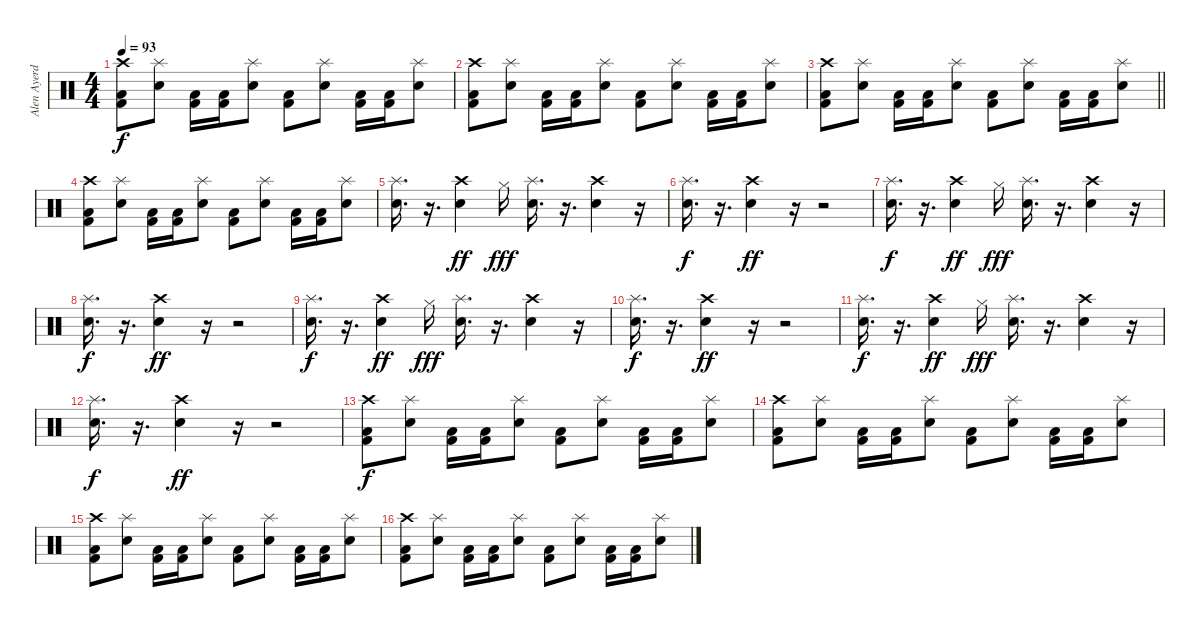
\track ("Alen Ayerdi" "Alen Ayerd") {instrument percussion}
\staff {score}
\articulation defaults
\ts (4 4)
\tempo 93
\clef neutral
\ks c
("Crash high (hit)" "Low Floor Tom (hit)" "Kick (hit) 2").8{dy f} ("Splash (hit)" "Electric Snare (hit)").8 ("Low Floor Tom (hit)" "Kick (hit) 2").16 ("Low Floor Tom (hit)" "Kick (hit) 2").16 ("Splash (hit)" "Electric Snare (hit)").8 ("Low Floor Tom (hit)" "Kick (hit) 2").8 ("Splash (hit)" "Electric Snare (hit)").8 ("Low Floor Tom (hit)" "Kick (hit) 2").16 ("Low Floor Tom (hit)" "Kick (hit) 2").16 ("Splash (hit)" "Electric Snare (hit)").8 |
("Crash high (hit)" "Low Floor Tom (hit)" "Kick (hit) 2").8 ("Splash (hit)" "Electric Snare (hit)").8 ("Low Floor Tom (hit)" "Kick (hit) 2").16 ("Low Floor Tom (hit)" "Kick (hit) 2").16 ("Splash (hit)" "Electric Snare (hit)").8 ("Low Floor Tom (hit)" "Kick (hit) 2").8 ("Splash (hit)" "Electric Snare (hit)").8 ("Low Floor Tom (hit)" "Kick (hit) 2").16 ("Low Floor Tom (hit)" "Kick (hit) 2").16 ("Splash (hit)" "Electric Snare (hit)").8 |
\barLineRight lightlight
("Crash high (hit)" "Low Floor Tom (hit)" "Kick (hit) 2").8 ("Splash (hit)" "Electric Snare (hit)").8 ("Low Floor Tom (hit)" "Kick (hit) 2").16 ("Low Floor Tom (hit)" "Kick (hit) 2").16 ("Splash (hit)" "Electric Snare (hit)").8 ("Low Floor Tom (hit)" "Kick (hit) 2").8 ("Splash (hit)" "Electric Snare (hit)").8 ("Low Floor Tom (hit)" "Kick (hit) 2").16 ("Low Floor Tom (hit)" "Kick (hit) 2").16 ("Splash (hit)" "Electric Snare (hit)").8 |
("Crash high (hit)" "Low Floor Tom (hit)" "Kick (hit) 2").8 ("Splash (hit)" "Electric Snare (hit)").8 ("Low Floor Tom (hit)" "Kick (hit) 2").16 ("Low Floor Tom (hit)" "Kick (hit) 2").16 ("Splash (hit)" "Electric Snare (hit)").8 ("Low Floor Tom (hit)" "Kick (hit) 2").8 ("Splash (hit)" "Electric Snare (hit)").8 ("Low Floor Tom (hit)" "Kick (hit) 2").16 ("Low Floor Tom (hit)" "Kick (hit) 2").16 ("Splash (hit)" "Electric Snare (hit)").8 |
("Splash (hit)" "Electric Snare (hit)").16{d} r.16{d} ("Crash high (hit)" "Electric Snare (hit)").4{dy ff} "Hi-Hat (closed)".16{dy fff} ("Splash (hit)" "Electric Snare (hit)").16{d} r.16{d} ("Crash high (hit)" "Electric Snare (hit)").4 r.16 |
("Splash (hit)" "Electric Snare (hit)").16{d dy f} r.16{d} ("Crash high (hit)" "Electric Snare (hit)").4{dy ff} r.16 r.2 |
("Splash (hit)" "Electric Snare (hit)").16{d dy f} r.16{d} ("Crash high (hit)" "Electric Snare (hit)").4{dy ff} "Hi-Hat (closed)".16{dy fff} ("Splash (hit)" "Electric Snare (hit)").16{d} r.16{d} ("Crash high (hit)" "Electric Snare (hit)").4 r.16 |
("Splash (hit)" "Electric Snare (hit)").16{d dy f} r.16{d} ("Crash high (hit)" "Electric Snare (hit)").4{dy ff} r.16 r.2 |
("Splash (hit)" "Electric Snare (hit)").16{d dy f} r.16{d} ("Crash high (hit)" "Electric Snare (hit)").4{dy ff} "Hi-Hat (closed)".16{dy fff} ("Splash (hit)" "Electric Snare (hit)").16{d} r.16{d} ("Crash high (hit)" "Electric Snare (hit)").4 r.16 |
("Splash (hit)" "Electric Snare (hit)").16{d dy f} r.16{d} ("Crash high (hit)" "Electric Snare (hit)").4{dy ff} r.16 r.2 |
("Splash (hit)" "Electric Snare (hit)").16{d dy f} r.16{d} ("Crash high (hit)" "Electric Snare (hit)").4{dy ff} "Hi-Hat (closed)".16{dy fff} ("Splash (hit)" "Electric Snare (hit)").16{d} r.16{d} ("Crash high (hit)" "Electric Snare (hit)").4 r.16 |
("Splash (hit)" "Electric Snare (hit)").16{d dy f} r.16{d} ("Crash high (hit)" "Electric Snare (hit)").4{dy ff} r.16 r.2 |
("Crash high (hit)" "Low Floor Tom (hit)" "Kick (hit) 2").8{dy f} ("Splash (hit)" "Electric Snare (hit)").8 ("Low Floor Tom (hit)" "Kick (hit) 2").16 ("Low Floor Tom (hit)" "Kick (hit) 2").16 ("Splash (hit)" "Electric Snare (hit)").8 ("Low Floor Tom (hit)" "Kick (hit) 2").8 ("Splash (hit)" "Electric Snare (hit)").8 ("Low Floor Tom (hit)" "Kick (hit) 2").16 ("Low Floor Tom (hit)" "Kick (hit) 2").16 ("Splash (hit)" "Electric Snare (hit)").8 |
("Crash high (hit)" "Low Floor Tom (hit)" "Kick (hit) 2").8 ("Splash (hit)" "Electric Snare (hit)").8 ("Low Floor Tom (hit)" "Kick (hit) 2").16 ("Low Floor Tom (hit)" "Kick (hit) 2").16 ("Splash (hit)" "Electric Snare (hit)").8 ("Low Floor Tom (hit)" "Kick (hit) 2").8 ("Splash (hit)" "Electric Snare (hit)").8 ("Low Floor Tom (hit)" "Kick (hit) 2").16 ("Low Floor Tom (hit)" "Kick (hit) 2").16 ("Splash (hit)" "Electric Snare (hit)").8 |
("Crash high (hit)" "Low Floor Tom (hit)" "Kick (hit) 2").8 ("Splash (hit)" "Electric Snare (hit)").8 ("Low Floor Tom (hit)" "Kick (hit) 2").16 ("Low Floor Tom (hit)" "Kick (hit) 2").16 ("Splash (hit)" "Electric Snare (hit)").8 ("Low Floor Tom (hit)" "Kick (hit) 2").8 ("Splash (hit)" "Electric Snare (hit)").8 ("Low Floor Tom (hit)" "Kick (hit) 2").16 ("Low Floor Tom (hit)" "Kick (hit) 2").16 ("Splash (hit)" "Electric Snare (hit)").8 |
("Crash high (hit)" "Low Floor Tom (hit)" "Kick (hit) 2").8 ("Splash (hit)" "Electric Snare (hit)").8 ("Low Floor Tom (hit)" "Kick (hit) 2").16 ("Low Floor Tom (hit)" "Kick (hit) 2").16 ("Splash (hit)" "Electric Snare (hit)").8 ("Low Floor Tom (hit)" "Kick (hit) 2").8 ("Splash (hit)" "Electric Snare (hit)").8 ("Low Floor Tom (hit)" "Kick (hit) 2").16 ("Low Floor Tom (hit)" "Kick (hit) 2").16 ("Splash (hit)" "Electric Snare (hit)").8
